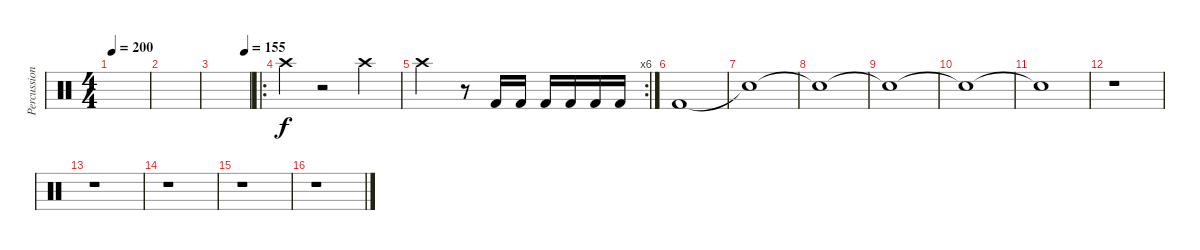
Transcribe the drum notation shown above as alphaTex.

\track ("Percussion" "Percussion") {instrument percussion}
\staff {score}
\articulation defaults
\ts (4 4)
\tempo 200
\clef neutral
\ks c
|
|
\tempo (155 0.875)
|
\ro "Crash high (hit)".4
r.2 "Crash high (hit)".4 |
\rc 6 "Crash high (hit)".2
r.8 "Kick (hit) 2".16 "Kick (hit) 2".16 "Kick (hit) 2".16 "Kick (hit) 2".16 "Kick (hit) 2".16 "Kick (hit) 2".16 |
"Kick (hit) 2".1 |
"Snare (hit)"{t}.1 |
"Snare (hit)"{t}.1 |
"Snare (hit)"{t}.1 |
"Snare (hit)"{t}.1 |
"Snare (hit)"{t}.1 |
r.1 |
r.1 |
r.1 |
r.1 |
r.1
